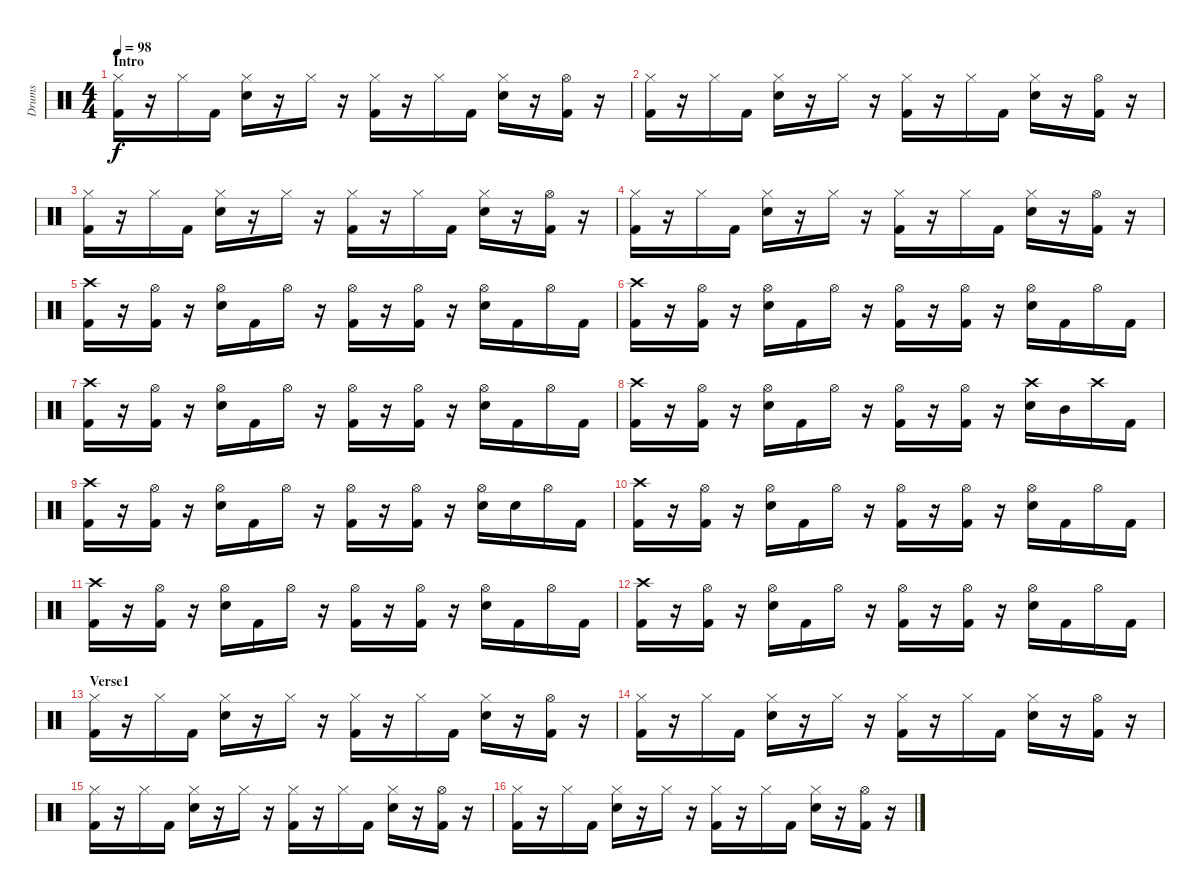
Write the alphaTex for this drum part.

\track ("Drums" "Drums") {instrument percussion}
\staff {score}
\articulation defaults
\ts (4 4)
\section ("" "Intro")
\tempo 98
\clef neutral
\ks c
("Hi-Hat (closed)" "Kick (hit) 2").16{dy f} r.16 "Hi-Hat (closed)".16 "Kick (hit) 2".16 ("Hi-Hat (closed)" "Snare (hit) 2").16 r.16 "Hi-Hat (closed)".16 r.16 ("Hi-Hat (closed)" "Kick (hit) 2").16 r.16 "Hi-Hat (closed)".16 "Kick (hit) 2".16 ("Hi-Hat (closed)" "Snare (hit) 2").16 r.16 ("Hi-Hat (open)" "Kick (hit) 2").16 r.16 |
("Hi-Hat (closed)" "Kick (hit) 2").16 r.16 "Hi-Hat (closed)".16 "Kick (hit) 2".16 ("Hi-Hat (closed)" "Snare (hit) 2").16 r.16 "Hi-Hat (closed)".16 r.16 ("Hi-Hat (closed)" "Kick (hit) 2").16 r.16 "Hi-Hat (closed)".16 "Kick (hit) 2".16 ("Hi-Hat (closed)" "Snare (hit) 2").16 r.16 ("Hi-Hat (open)" "Kick (hit) 2").16 r.16 |
("Hi-Hat (closed)" "Kick (hit) 2").16 r.16 "Hi-Hat (closed)".16 "Kick (hit) 2".16 ("Hi-Hat (closed)" "Snare (hit) 2").16 r.16 "Hi-Hat (closed)".16 r.16 ("Hi-Hat (closed)" "Kick (hit) 2").16 r.16 "Hi-Hat (closed)".16 "Kick (hit) 2".16 ("Hi-Hat (closed)" "Snare (hit) 2").16 r.16 ("Hi-Hat (open)" "Kick (hit) 2").16 r.16 |
("Hi-Hat (closed)" "Kick (hit) 2").16 r.16 "Hi-Hat (closed)".16 "Kick (hit) 2".16 ("Hi-Hat (closed)" "Snare (hit) 2").16 r.16 "Hi-Hat (closed)".16 r.16 ("Hi-Hat (closed)" "Kick (hit) 2").16 r.16 "Hi-Hat (closed)".16 "Kick (hit) 2".16 ("Hi-Hat (closed)" "Snare (hit) 2").16 r.16 ("Hi-Hat (open)" "Kick (hit) 2").16 r.16 |
("Crash high (hit)" "Kick (hit) 2").16 r.16 ("Hi-Hat (open)" "Kick (hit) 2").16 r.16 ("Hi-Hat (open)" "Snare (hit) 2").16 "Kick (hit) 2".16 "Hi-Hat (open)".16 r.16 ("Hi-Hat (open)" "Kick (hit) 2").16 r.16 ("Hi-Hat (open)" "Kick (hit) 2").16 r.16 ("Hi-Hat (open)" "Snare (hit) 2").16 "Kick (hit) 2".16 "Hi-Hat (open)".16 "Kick (hit) 2".16 |
("Crash high (hit)" "Kick (hit) 2").16 r.16 ("Hi-Hat (open)" "Kick (hit) 2").16 r.16 ("Hi-Hat (open)" "Snare (hit) 2").16 "Kick (hit) 2".16 "Hi-Hat (open)".16 r.16 ("Hi-Hat (open)" "Kick (hit) 2").16 r.16 ("Hi-Hat (open)" "Kick (hit) 2").16 r.16 ("Hi-Hat (open)" "Snare (hit) 2").16 "Kick (hit) 2".16 "Hi-Hat (open)".16 "Kick (hit) 2".16 |
("Crash high (hit)" "Kick (hit) 2").16 r.16 ("Hi-Hat (open)" "Kick (hit) 2").16 r.16 ("Hi-Hat (open)" "Snare (hit) 2").16 "Kick (hit) 2".16 "Hi-Hat (open)".16 r.16 ("Hi-Hat (open)" "Kick (hit) 2").16 r.16 ("Hi-Hat (open)" "Kick (hit) 2").16 r.16 ("Hi-Hat (open)" "Snare (hit) 2").16 "Kick (hit) 2".16 "Hi-Hat (open)".16 "Kick (hit) 2".16 |
("Crash high (hit)" "Kick (hit) 2").16 r.16 ("Hi-Hat (open)" "Kick (hit) 2").16 r.16 ("Hi-Hat (open)" "Snare (hit) 2").16 "Kick (hit) 2".16 "Hi-Hat (open)".16 r.16 ("Hi-Hat (open)" "Kick (hit) 2").16 r.16 ("Hi-Hat (open)" "Kick (hit) 2").16 r.16 ("Crash high (hit)" "Snare (hit) 2").16 "Mid Tom (hit)".16 "Crash high (hit)".16 "Kick (hit) 2".16 |
("Crash high (hit)" "Kick (hit) 2").16 r.16 ("Hi-Hat (open)" "Kick (hit) 2").16 r.16 ("Hi-Hat (open)" "Snare (hit) 2").16 "Kick (hit) 2".16 "Hi-Hat (open)".16 r.16 ("Hi-Hat (open)" "Kick (hit) 2").16 r.16 ("Hi-Hat (open)" "Kick (hit) 2").16 r.16 ("Hi-Hat (open)" "Snare (hit) 2").16 "Snare (hit) 2".16 "Hi-Hat (open)".16 "Kick (hit) 2".16 |
("Crash high (hit)" "Kick (hit) 2").16 r.16 ("Hi-Hat (open)" "Kick (hit) 2").16 r.16 ("Hi-Hat (open)" "Snare (hit) 2").16 "Kick (hit) 2".16 "Hi-Hat (open)".16 r.16 ("Hi-Hat (open)" "Kick (hit) 2").16 r.16 ("Hi-Hat (open)" "Kick (hit) 2").16 r.16 ("Hi-Hat (open)" "Snare (hit) 2").16 "Kick (hit) 2".16 "Hi-Hat (open)".16 "Kick (hit) 2".16 |
("Crash high (hit)" "Kick (hit) 2").16 r.16 ("Hi-Hat (open)" "Kick (hit) 2").16 r.16 ("Hi-Hat (open)" "Snare (hit) 2").16 "Kick (hit) 2".16 "Hi-Hat (open)".16 r.16 ("Hi-Hat (open)" "Kick (hit) 2").16 r.16 ("Hi-Hat (open)" "Kick (hit) 2").16 r.16 ("Hi-Hat (open)" "Snare (hit) 2").16 "Kick (hit) 2".16 "Hi-Hat (open)".16 "Kick (hit) 2".16 |
("Crash high (hit)" "Kick (hit) 2").16 r.16 ("Hi-Hat (open)" "Kick (hit) 2").16 r.16 ("Hi-Hat (open)" "Snare (hit) 2").16 "Kick (hit) 2".16 "Hi-Hat (open)".16 r.16 ("Hi-Hat (open)" "Kick (hit) 2").16 r.16 ("Hi-Hat (open)" "Kick (hit) 2").16 r.16 ("Hi-Hat (open)" "Snare (hit) 2").16 "Kick (hit) 2".16 "Hi-Hat (open)".16 "Kick (hit) 2".16 |
\section ("" "Verse1")
("Hi-Hat (closed)" "Kick (hit) 2").16 r.16 "Hi-Hat (closed)".16 "Kick (hit) 2".16 ("Hi-Hat (closed)" "Snare (hit) 2").16 r.16 "Hi-Hat (closed)".16 r.16 ("Hi-Hat (closed)" "Kick (hit) 2").16 r.16 "Hi-Hat (closed)".16 "Kick (hit) 2".16 ("Hi-Hat (closed)" "Snare (hit) 2").16 r.16 ("Hi-Hat (open)" "Kick (hit) 2").16 r.16 |
("Hi-Hat (closed)" "Kick (hit) 2").16 r.16 "Hi-Hat (closed)".16 "Kick (hit) 2".16 ("Hi-Hat (closed)" "Snare (hit) 2").16 r.16 "Hi-Hat (closed)".16 r.16 ("Hi-Hat (closed)" "Kick (hit) 2").16 r.16 "Hi-Hat (closed)".16 "Kick (hit) 2".16 ("Hi-Hat (closed)" "Snare (hit) 2").16 r.16 ("Hi-Hat (open)" "Kick (hit) 2").16 r.16 |
("Hi-Hat (closed)" "Kick (hit) 2").16 r.16 "Hi-Hat (closed)".16 "Kick (hit) 2".16 ("Hi-Hat (closed)" "Snare (hit) 2").16 r.16 "Hi-Hat (closed)".16 r.16 ("Hi-Hat (closed)" "Kick (hit) 2").16 r.16 "Hi-Hat (closed)".16 "Kick (hit) 2".16 ("Hi-Hat (closed)" "Snare (hit) 2").16 r.16 ("Hi-Hat (open)" "Kick (hit) 2").16 r.16 |
("Hi-Hat (closed)" "Kick (hit) 2").16 r.16 "Hi-Hat (closed)".16 "Kick (hit) 2".16 ("Hi-Hat (closed)" "Snare (hit) 2").16 r.16 "Hi-Hat (closed)".16 r.16 ("Hi-Hat (closed)" "Kick (hit) 2").16 r.16 "Hi-Hat (closed)".16 "Kick (hit) 2".16 ("Hi-Hat (closed)" "Snare (hit) 2").16 r.16 ("Hi-Hat (open)" "Kick (hit) 2").16 r.16
